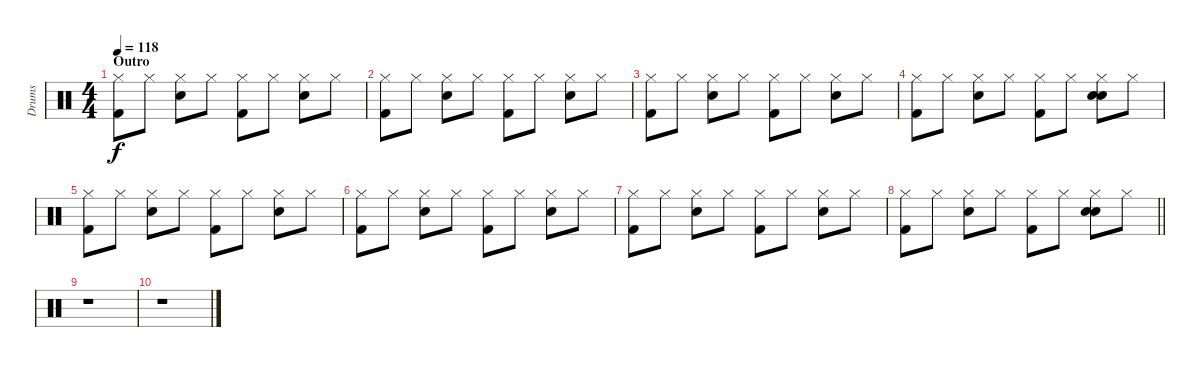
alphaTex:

\track ("Drums" "Drums") {instrument percussion}
\staff {score}
\articulation defaults
\ts (4 4)
\section ("" "Outro")
\tempo 118
\clef neutral
\ks c
("Hi-Hat (closed)" "Kick (hit) 2").8{dy f} "Hi-Hat (closed)".8 ("Hi-Hat (closed)" "Snare (hit) 2").8 "Hi-Hat (closed)".8 ("Hi-Hat (closed)" "Kick (hit) 2").8 "Hi-Hat (closed)".8 ("Hi-Hat (closed)" "Snare (hit) 2").8 "Hi-Hat (closed)".8 |
("Hi-Hat (closed)" "Kick (hit) 2").8 "Hi-Hat (closed)".8 ("Hi-Hat (closed)" "Snare (hit) 2").8 "Hi-Hat (closed)".8 ("Hi-Hat (closed)" "Kick (hit) 2").8 "Hi-Hat (closed)".8 ("Hi-Hat (closed)" "Snare (hit) 2").8 "Hi-Hat (closed)".8 |
("Hi-Hat (closed)" "Kick (hit) 2").8 "Hi-Hat (closed)".8 ("Hi-Hat (closed)" "Snare (hit) 2").8 "Hi-Hat (closed)".8 ("Hi-Hat (closed)" "Kick (hit) 2").8 "Hi-Hat (closed)".8 ("Hi-Hat (closed)" "Snare (hit) 2").8 "Hi-Hat (closed)".8 |
("Hi-Hat (closed)" "Kick (hit) 2").8 "Hi-Hat (closed)".8 ("Hi-Hat (closed)" "Snare (hit) 2").8 "Hi-Hat (closed)".8 ("Hi-Hat (closed)" "Kick (hit) 2").8 "Hi-Hat (closed)".8 ("Hi-Hat (closed)" "Hand Clap (hit)" "Snare (hit) 2").8 "Hi-Hat (closed)".8 |
("Hi-Hat (closed)" "Kick (hit) 2").8 "Hi-Hat (closed)".8 ("Hi-Hat (closed)" "Snare (hit) 2").8 "Hi-Hat (closed)".8 ("Hi-Hat (closed)" "Kick (hit) 2").8 "Hi-Hat (closed)".8 ("Hi-Hat (closed)" "Snare (hit) 2").8 "Hi-Hat (closed)".8 |
("Hi-Hat (closed)" "Kick (hit) 2").8 "Hi-Hat (closed)".8 ("Hi-Hat (closed)" "Snare (hit) 2").8 "Hi-Hat (closed)".8 ("Hi-Hat (closed)" "Kick (hit) 2").8 "Hi-Hat (closed)".8 ("Hi-Hat (closed)" "Snare (hit) 2").8 "Hi-Hat (closed)".8 |
("Hi-Hat (closed)" "Kick (hit) 2").8 "Hi-Hat (closed)".8 ("Hi-Hat (closed)" "Snare (hit) 2").8 "Hi-Hat (closed)".8 ("Hi-Hat (closed)" "Kick (hit) 2").8 "Hi-Hat (closed)".8 ("Hi-Hat (closed)" "Snare (hit) 2").8 "Hi-Hat (closed)".8 |
\barLineRight lightlight
("Hi-Hat (closed)" "Kick (hit) 2").8 "Hi-Hat (closed)".8 ("Hi-Hat (closed)" "Snare (hit) 2").8 "Hi-Hat (closed)".8 ("Hi-Hat (closed)" "Kick (hit) 2").8 "Hi-Hat (closed)".8 ("Hi-Hat (closed)" "Hand Clap (hit)" "Snare (hit) 2").8 "Hi-Hat (closed)".8 |
r.1 |
r.1
